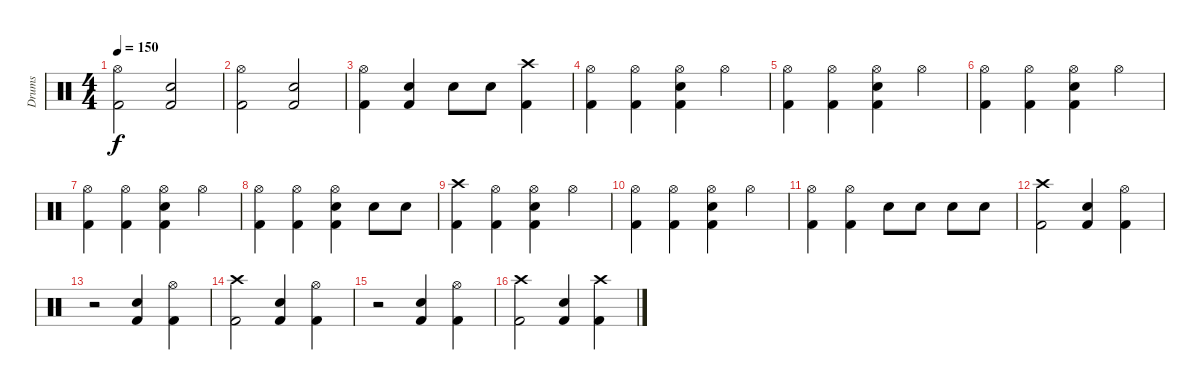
\track ("Drums" "Drums") {instrument percussion}
\staff {score}
\articulation defaults
\ts (4 4)
\tempo 150
\clef neutral
\ks c
("Hi-Hat (open)" "Kick (hit) 2").2{dy f} ("Electric Snare (hit)" "Kick (hit) 2").2 |
("Hi-Hat (open)" "Kick (hit) 2").2 ("Electric Snare (hit)" "Kick (hit) 2").2 |
("Hi-Hat (open)" "Kick (hit) 2").4 ("Electric Snare (hit)" "Kick (hit) 2").4 "Snare (hit) 2".8 "Snare (hit) 2".8 ("Crash high (hit)" "Kick (hit) 2").4 |
("Hi-Hat (open)" "Kick (hit) 2").4 ("Hi-Hat (open)" "Kick (hit) 2").4 ("Hi-Hat (open)" "Electric Snare (hit)" "Kick (hit) 2").4 "Hi-Hat (open)".4 |
("Hi-Hat (open)" "Kick (hit) 2").4 ("Hi-Hat (open)" "Kick (hit) 2").4 ("Hi-Hat (open)" "Electric Snare (hit)" "Kick (hit) 2").4 "Hi-Hat (open)".4 |
("Hi-Hat (open)" "Kick (hit) 2").4 ("Hi-Hat (open)" "Kick (hit) 2").4 ("Hi-Hat (open)" "Electric Snare (hit)" "Kick (hit) 2").4 "Hi-Hat (open)".4 |
("Hi-Hat (open)" "Kick (hit) 2").4 ("Hi-Hat (open)" "Kick (hit) 2").4 ("Hi-Hat (open)" "Electric Snare (hit)" "Kick (hit) 2").4 "Hi-Hat (open)".4 |
("Hi-Hat (open)" "Kick (hit) 2").4 ("Hi-Hat (open)" "Kick (hit) 2").4 ("Hi-Hat (open)" "Electric Snare (hit)" "Kick (hit) 2").4 "Electric Snare (hit)".8 "Electric Snare (hit)".8 |
("Crash high (hit)" "Kick (hit) 2").4 ("Hi-Hat (open)" "Kick (hit) 2").4 ("Hi-Hat (open)" "Electric Snare (hit)" "Kick (hit) 2").4 "Hi-Hat (open)".4 |
("Hi-Hat (open)" "Kick (hit) 2").4 ("Hi-Hat (open)" "Kick (hit) 2").4 ("Hi-Hat (open)" "Electric Snare (hit)" "Kick (hit) 2").4 "Hi-Hat (open)".4 |
("Hi-Hat (open)" "Kick (hit) 2").4 ("Hi-Hat (open)" "Kick (hit) 2").4 "Electric Snare (hit)".8 "Electric Snare (hit)".8 "Snare (hit) 2".8 "Snare (hit) 2".8 |
("Crash high (hit)" "Kick (hit) 2").2 ("Electric Snare (hit)" "Kick (hit) 2").4 ("Hi-Hat (open)" "Kick (hit) 2").4 |
r.2 ("Electric Snare (hit)" "Kick (hit) 2").4 ("Hi-Hat (open)" "Kick (hit) 2").4 |
("Crash high (hit)" "Kick (hit) 2").2 ("Electric Snare (hit)" "Kick (hit) 2").4 ("Hi-Hat (open)" "Kick (hit) 2").4 |
r.2 ("Electric Snare (hit)" "Kick (hit) 2").4 ("Hi-Hat (open)" "Kick (hit) 2").4 |
("Crash high (hit)" "Kick (hit) 2").2 ("Electric Snare (hit)" "Kick (hit) 2").4 ("Crash high (hit)" "Kick (hit) 2").4
